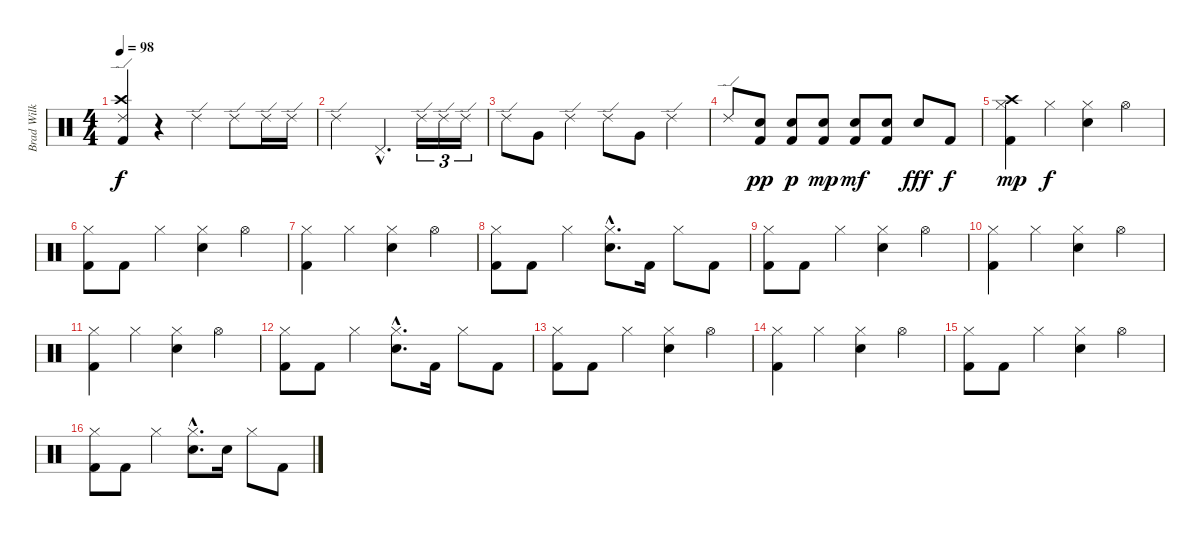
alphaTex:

\track ("Brad Wilk" "Brad Wilk") {instrument percussion}
\staff {score}
\articulation defaults
\ts (4 4)
\tempo 98
\clef neutral
\ks c
("Ride (edge) 2" "Crash high (hit)" "Kick (hit) 2").4{dy f} r.4 "Ride (edge) 2".4 "Ride (edge) 2".8 "Ride (edge) 2".16 "Ride (edge) 2".16 |
"Ride (edge) 2".2 "Pedal Hi-Hat (hit)"{hac}.4{d} "Ride (edge) 2".16{tu (3 2)} "Ride (edge) 2".16{tu (3 2)} "Ride (edge) 2".16{tu (3 2)} |
"Ride (edge) 2".8 "Very Low Tom (hit)".8 "Ride (edge) 2".4 "Ride (edge) 2".8 "Very Low Tom (hit)".8 "Ride (edge) 2".4 |
"Ride (edge) 2".8 ("Electric Snare (hit)" "Kick (hit) 2").8{dy pp} ("Electric Snare (hit)" "Kick (hit) 2").8{dy p} ("Electric Snare (hit)" "Kick (hit) 2").8{dy mp} ("Electric Snare (hit)" "Kick (hit) 2").8{dy mf} ("Electric Snare (hit)" "Kick (hit) 2").8 "Electric Snare (hit)".8{dy fff} "Kick (hit) 2".8{dy f} |
("Crash high (hit)" "Hi-Hat (closed)" "Kick (hit) 2").4{dy mp} "Hi-Hat (closed)".4{dy f} ("Hi-Hat (closed)" "Electric Snare (hit)").4 "Hi-Hat (open)".4 |
("Hi-Hat (closed)" "Kick (hit) 2").8 "Kick (hit) 2".8 "Hi-Hat (closed)".4 ("Hi-Hat (closed)" "Electric Snare (hit)").4 "Hi-Hat (open)".4 |
("Hi-Hat (closed)" "Kick (hit) 2").4 "Hi-Hat (closed)".4 ("Hi-Hat (closed)" "Electric Snare (hit)").4 "Hi-Hat (open)".4 |
("Hi-Hat (closed)" "Kick (hit) 2").8 "Kick (hit) 2".8 "Hi-Hat (closed)".4 ("Hi-Hat (closed)"{hac} "Electric Snare (hit)"{hac}).8{d} "Kick (hit) 2".16 "Hi-Hat (closed)".8 "Kick (hit) 2".8 |
("Hi-Hat (closed)" "Kick (hit) 2").8 "Kick (hit) 2".8 "Hi-Hat (closed)".4 ("Hi-Hat (closed)" "Electric Snare (hit)").4 "Hi-Hat (open)".4 |
("Hi-Hat (closed)" "Kick (hit) 2").4 "Hi-Hat (closed)".4 ("Hi-Hat (closed)" "Electric Snare (hit)").4 "Hi-Hat (open)".4 |
("Hi-Hat (closed)" "Kick (hit) 2").4 "Hi-Hat (closed)".4 ("Hi-Hat (closed)" "Electric Snare (hit)").4 "Hi-Hat (open)".4 |
("Hi-Hat (closed)" "Kick (hit) 2").8 "Kick (hit) 2".8 "Hi-Hat (closed)".4 ("Hi-Hat (closed)"{hac} "Electric Snare (hit)"{hac}).8{d} "Kick (hit) 2".16 "Hi-Hat (closed)".8 "Kick (hit) 2".8 |
("Hi-Hat (closed)" "Kick (hit) 2").8 "Kick (hit) 2".8 "Hi-Hat (closed)".4 ("Hi-Hat (closed)" "Electric Snare (hit)").4 "Hi-Hat (open)".4 |
("Hi-Hat (closed)" "Kick (hit) 2").4 "Hi-Hat (closed)".4 ("Hi-Hat (closed)" "Electric Snare (hit)").4 "Hi-Hat (open)".4 |
("Hi-Hat (closed)" "Kick (hit) 2").8 "Kick (hit) 2".8 "Hi-Hat (closed)".4 ("Hi-Hat (closed)" "Electric Snare (hit)").4 "Hi-Hat (open)".4 |
("Hi-Hat (closed)" "Kick (hit) 2").8 "Kick (hit) 2".8 "Hi-Hat (closed)".4 ("Hi-Hat (closed)"{hac} "Electric Snare (hit)"{hac}).8{d} "Electric Snare (hit)".16 "Hi-Hat (closed)".8 "Kick (hit) 2".8
